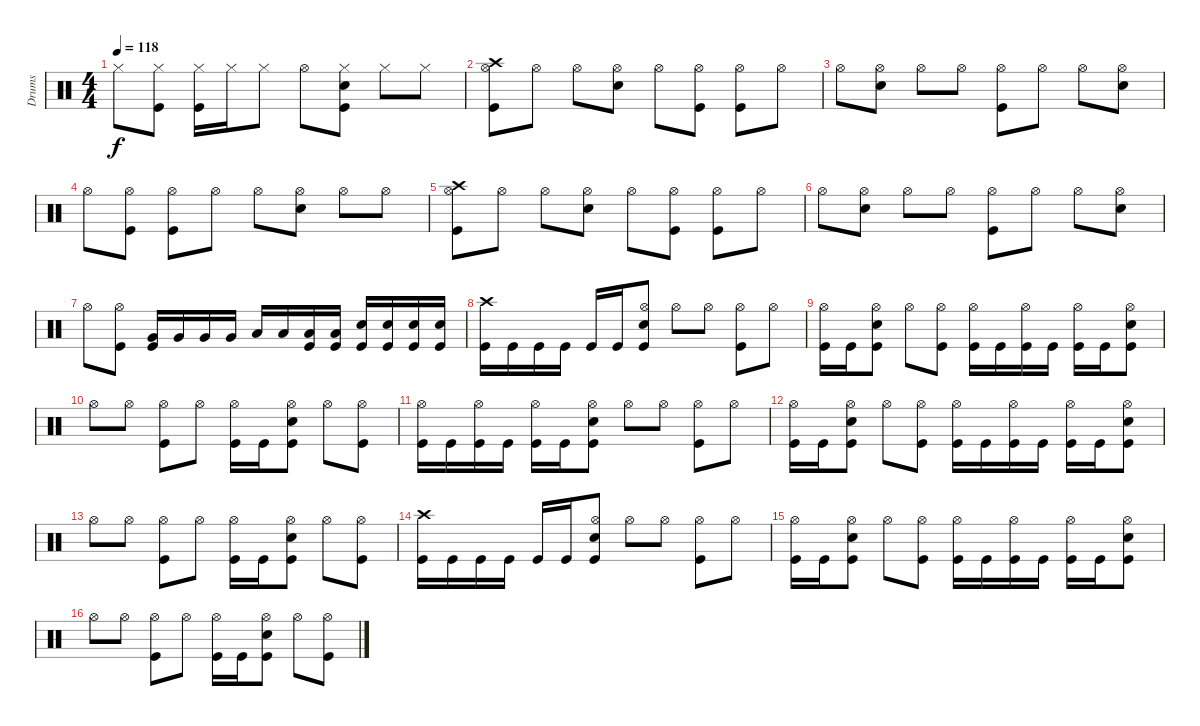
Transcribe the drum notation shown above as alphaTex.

\track ("Drums" "Drums") {instrument percussion}
\staff {score}
\articulation defaults
\ts (4 4)
\tempo 118
\clef neutral
\ks c "Hi-Hat (closed)".8{dy f}
("Kick (hit)" "Hi-Hat (closed)").8 ("Kick (hit)" "Hi-Hat (closed)").16 "Hi-Hat (closed)".16 "Hi-Hat (closed)".8 "Hi-Hat (open)".8 ("Kick (hit)" "Snare (hit) 2" "Hi-Hat (closed)").8 "Hi-Hat (closed)".8 "Hi-Hat (closed)".8 |
("Kick (hit)" "Hi-Hat (open)" "Crash high (hit)").8 "Hi-Hat (open)".8 "Hi-Hat (open)".8 ("Snare (hit) 2" "Hi-Hat (open)").8 "Hi-Hat (open)".8 ("Kick (hit)" "Hi-Hat (open)").8 ("Kick (hit)" "Hi-Hat (open)").8 "Hi-Hat (open)".8 |
"Hi-Hat (open)".8 ("Snare (hit) 2" "Hi-Hat (open)").8 "Hi-Hat (open)".8 "Hi-Hat (open)".8 ("Kick (hit)" "Hi-Hat (open)").8 "Hi-Hat (open)".8 "Hi-Hat (open)".8 ("Snare (hit) 2" "Hi-Hat (open)").8 |
"Hi-Hat (open)".8 ("Kick (hit)" "Hi-Hat (open)").8 ("Kick (hit)" "Hi-Hat (open)").8 "Hi-Hat (open)".8 "Hi-Hat (open)".8 ("Snare (hit) 2" "Hi-Hat (open)").8 "Hi-Hat (open)".8 "Hi-Hat (open)".8 |
("Kick (hit)" "Hi-Hat (open)" "Crash high (hit)").8 "Hi-Hat (open)".8 "Hi-Hat (open)".8 ("Snare (hit) 2" "Hi-Hat (open)").8 "Hi-Hat (open)".8 ("Kick (hit)" "Hi-Hat (open)").8 ("Kick (hit)" "Hi-Hat (open)").8 "Hi-Hat (open)".8 |
"Hi-Hat (open)".8 ("Snare (hit) 2" "Hi-Hat (open)").8 "Hi-Hat (open)".8 "Hi-Hat (open)".8 ("Kick (hit)" "Hi-Hat (open)").8 "Hi-Hat (open)".8 "Hi-Hat (open)".8 ("Snare (hit) 2" "Hi-Hat (open)").8 |
"Hi-Hat (open)".8 ("Kick (hit)" "Hi-Hat (open)").8 ("Kick (hit)" "Very Low Tom (hit)").16 "Very Low Tom (hit)".16 "Very Low Tom (hit)".16 "Very Low Tom (hit)".16 "Low Floor Tom (hit)".16 "Low Floor Tom (hit)".16 ("Kick (hit)" "Low Floor Tom (hit)").16 ("Kick (hit)" "Low Floor Tom (hit)").16 ("Kick (hit)" "Snare (hit) 2").16 ("Kick (hit)" "Snare (hit) 2").16 ("Kick (hit)" "Snare (hit) 2").16 ("Kick (hit)" "Snare (hit) 2").16 |
("Kick (hit)" "Crash high (hit)").16 "Kick (hit)".16 "Kick (hit)".16 "Kick (hit)".16 "Kick (hit)".16 "Kick (hit)".16 ("Kick (hit)" "Snare (hit) 2" "Hi-Hat (open)").8 "Hi-Hat (open)".8 "Hi-Hat (open)".8 ("Kick (hit)" "Hi-Hat (open)").8 "Hi-Hat (open)".8 |
("Kick (hit)" "Hi-Hat (open)").16 "Kick (hit)".16 ("Kick (hit)" "Snare (hit) 2" "Hi-Hat (open)").8 "Hi-Hat (open)".8 ("Kick (hit)" "Hi-Hat (open)").8 ("Kick (hit)" "Hi-Hat (open)").16 "Kick (hit)".16 ("Kick (hit)" "Hi-Hat (open)").16 "Kick (hit)".16 ("Kick (hit)" "Hi-Hat (open)").16 "Kick (hit)".16 ("Kick (hit)" "Snare (hit) 2" "Hi-Hat (open)").8 |
"Hi-Hat (open)".8 "Hi-Hat (open)".8 ("Kick (hit)" "Hi-Hat (open)").8 "Hi-Hat (open)".8 ("Kick (hit)" "Hi-Hat (open)").16 "Kick (hit)".16 ("Kick (hit)" "Snare (hit) 2" "Hi-Hat (open)").8 "Hi-Hat (open)".8 ("Kick (hit)" "Hi-Hat (open)").8 |
("Kick (hit)" "Hi-Hat (open)").16 "Kick (hit)".16 ("Kick (hit)" "Hi-Hat (open)").16 "Kick (hit)".16 ("Kick (hit)" "Hi-Hat (open)").16 "Kick (hit)".16 ("Kick (hit)" "Snare (hit) 2" "Hi-Hat (open)").8 "Hi-Hat (open)".8 "Hi-Hat (open)".8 ("Kick (hit)" "Hi-Hat (open)").8 "Hi-Hat (open)".8 |
("Kick (hit)" "Hi-Hat (open)").16 "Kick (hit)".16 ("Kick (hit)" "Snare (hit) 2" "Hi-Hat (open)").8 "Hi-Hat (open)".8 ("Kick (hit)" "Hi-Hat (open)").8 ("Kick (hit)" "Hi-Hat (open)").16 "Kick (hit)".16 ("Kick (hit)" "Hi-Hat (open)").16 "Kick (hit)".16 ("Kick (hit)" "Hi-Hat (open)").16 "Kick (hit)".16 ("Kick (hit)" "Snare (hit) 2" "Hi-Hat (open)").8 |
"Hi-Hat (open)".8 "Hi-Hat (open)".8 ("Kick (hit)" "Hi-Hat (open)").8 "Hi-Hat (open)".8 ("Kick (hit)" "Hi-Hat (open)").16 "Kick (hit)".16 ("Kick (hit)" "Snare (hit) 2" "Hi-Hat (open)").8 "Hi-Hat (open)".8 ("Kick (hit)" "Hi-Hat (open)").8 |
("Kick (hit)" "Crash high (hit)").16 "Kick (hit)".16 "Kick (hit)".16 "Kick (hit)".16 "Kick (hit)".16 "Kick (hit)".16 ("Kick (hit)" "Snare (hit) 2" "Hi-Hat (open)").8 "Hi-Hat (open)".8 "Hi-Hat (open)".8 ("Kick (hit)" "Hi-Hat (open)").8 "Hi-Hat (open)".8 |
("Kick (hit)" "Hi-Hat (open)").16 "Kick (hit)".16 ("Kick (hit)" "Snare (hit) 2" "Hi-Hat (open)").8 "Hi-Hat (open)".8 ("Kick (hit)" "Hi-Hat (open)").8 ("Kick (hit)" "Hi-Hat (open)").16 "Kick (hit)".16 ("Kick (hit)" "Hi-Hat (open)").16 "Kick (hit)".16 ("Kick (hit)" "Hi-Hat (open)").16 "Kick (hit)".16 ("Kick (hit)" "Snare (hit) 2" "Hi-Hat (open)").8 |
"Hi-Hat (open)".8 "Hi-Hat (open)".8 ("Kick (hit)" "Hi-Hat (open)").8 "Hi-Hat (open)".8 ("Kick (hit)" "Hi-Hat (open)").16 "Kick (hit)".16 ("Kick (hit)" "Snare (hit) 2" "Hi-Hat (open)").8 "Hi-Hat (open)".8 ("Kick (hit)" "Hi-Hat (open)").8
